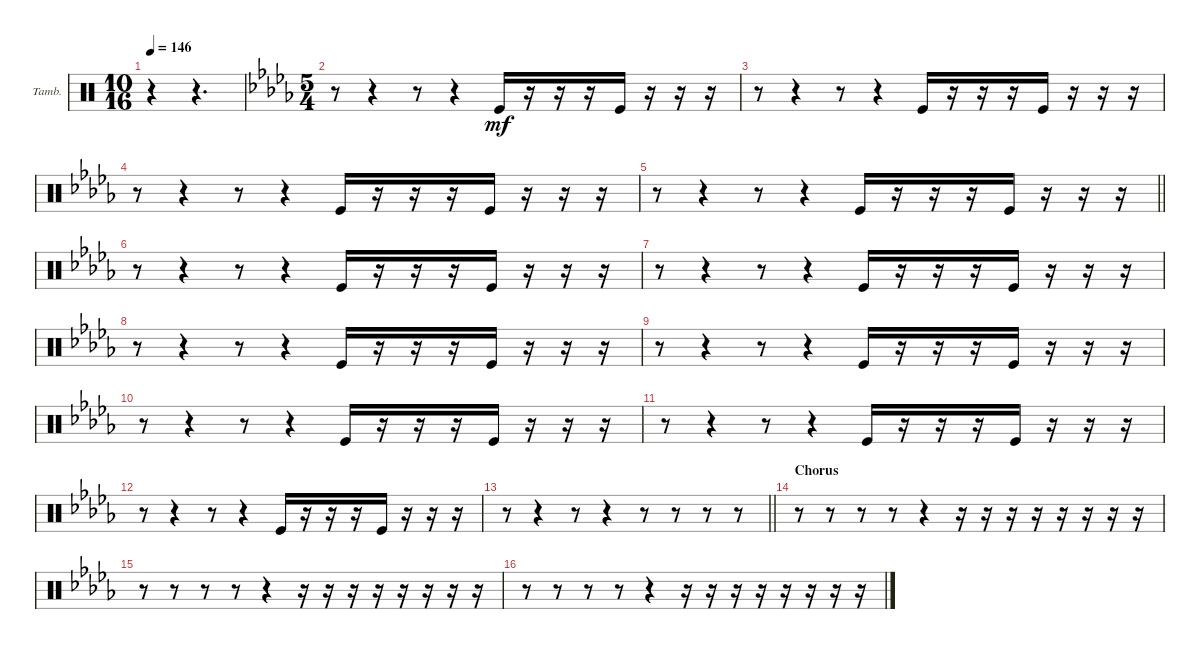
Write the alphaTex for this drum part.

\bracketExtendMode groupsimilarinstruments
\firstSystemTrackNameOrientation horizontal
\otherSystemsTrackNameOrientation horizontal
\track ("Tambourine" "Tamb.") {instrument percussion}
\staff {score}
\articulation defaults
\ts (10 16)
\beaming (8 5)
\tempo 146
\clef neutral
\ks c
r.4{dy mf} r.4{d} |
\ts (5 4)
\beaming (8 6 4)
\ks db
r.8 r.4 r.8 r.4 "Kick (hit)".16 r.16 r.16 r.16 "Kick (hit)".16 r.16 r.16 r.16 |
r.8 r.4 r.8 r.4 "Kick (hit)".16 r.16 r.16 r.16 "Kick (hit)".16 r.16 r.16 r.16 |
r.8 r.4 r.8 r.4 "Kick (hit)".16 r.16 r.16 r.16 "Kick (hit)".16 r.16 r.16 r.16 |
\barLineRight lightlight
r.8 r.4 r.8 r.4 "Kick (hit)".16 r.16 r.16 r.16 "Kick (hit)".16 r.16 r.16 r.16 |
r.8 r.4 r.8 r.4 "Kick (hit)".16 r.16 r.16 r.16 "Kick (hit)".16 r.16 r.16 r.16 |
r.8 r.4 r.8 r.4 "Kick (hit)".16 r.16 r.16 r.16 "Kick (hit)".16 r.16 r.16 r.16 |
r.8 r.4 r.8 r.4 "Kick (hit)".16 r.16 r.16 r.16 "Kick (hit)".16 r.16 r.16 r.16 |
r.8 r.4 r.8 r.4 "Kick (hit)".16 r.16 r.16 r.16 "Kick (hit)".16 r.16 r.16 r.16 |
r.8 r.4 r.8 r.4 "Kick (hit)".16 r.16 r.16 r.16 "Kick (hit)".16 r.16 r.16 r.16 |
r.8 r.4 r.8 r.4 "Kick (hit)".16 r.16 r.16 r.16 "Kick (hit)".16 r.16 r.16 r.16 |
r.8 r.4 r.8 r.4 "Kick (hit)".16 r.16 r.16 r.16 "Kick (hit)".16 r.16 r.16 r.16 |
\barLineRight lightlight
r.8 r.4 r.8 r.4 r.8 r.8 r.8 r.8 |
\section ("" "Chorus")
r.8 r.8 r.8 r.8 r.4 r.16 r.16 r.16 r.16 r.16 r.16 r.16 r.16 |
r.8 r.8 r.8 r.8 r.4 r.16 r.16 r.16 r.16 r.16 r.16 r.16 r.16 |
r.8 r.8 r.8 r.8 r.4 r.16 r.16 r.16 r.16 r.16 r.16 r.16 r.16
